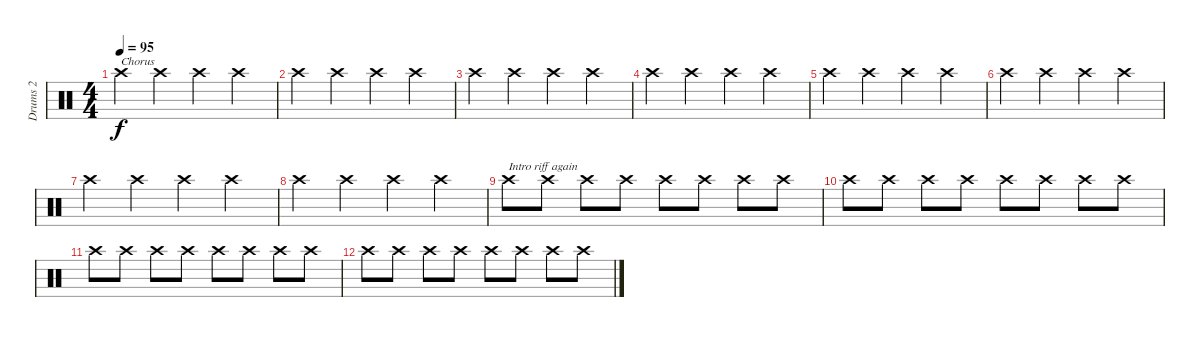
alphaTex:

\track ("Drums 2" "Drums 2") {instrument percussion}
\staff {score}
\articulation defaults
\ts (4 4)
\tempo 95
\clef neutral
\ks c "Crash high (hit)".4{txt "Chorus" dy f} "Crash high (hit)".4 "Crash high (hit)".4 "Crash high (hit)".4
|
"Crash high (hit)".4 "Crash high (hit)".4 "Crash high (hit)".4 "Crash high (hit)".4 |
"Crash high (hit)".4 "Crash high (hit)".4 "Crash high (hit)".4 "Crash high (hit)".4 |
"Crash high (hit)".4 "Crash high (hit)".4 "Crash high (hit)".4 "Crash high (hit)".4 |
"Crash high (hit)".4 "Crash high (hit)".4 "Crash high (hit)".4 "Crash high (hit)".4 |
"Crash high (hit)".4 "Crash high (hit)".4 "Crash high (hit)".4 "Crash high (hit)".4 |
"Crash high (hit)".4 "Crash high (hit)".4 "Crash high (hit)".4 "Crash high (hit)".4 |
"Crash high (hit)".4 "Crash high (hit)".4 "Crash high (hit)".4 "Crash high (hit)".4 |
"Crash high (hit)".8{txt "Intro riff again"} "Crash high (hit)".8 "Crash high (hit)".8 "Crash high (hit)".8 "Crash high (hit)".8 "Crash high (hit)".8 "Crash high (hit)".8 "Crash high (hit)".8 |
"Crash high (hit)".8 "Crash high (hit)".8 "Crash high (hit)".8 "Crash high (hit)".8 "Crash high (hit)".8 "Crash high (hit)".8 "Crash high (hit)".8 "Crash high (hit)".8 |
"Crash high (hit)".8 "Crash high (hit)".8 "Crash high (hit)".8 "Crash high (hit)".8 "Crash high (hit)".8 "Crash high (hit)".8 "Crash high (hit)".8 "Crash high (hit)".8 |
"Crash high (hit)".8 "Crash high (hit)".8 "Crash high (hit)".8 "Crash high (hit)".8 "Crash high (hit)".8 "Crash high (hit)".8 "Crash high (hit)".8 "Crash high (hit)".8
